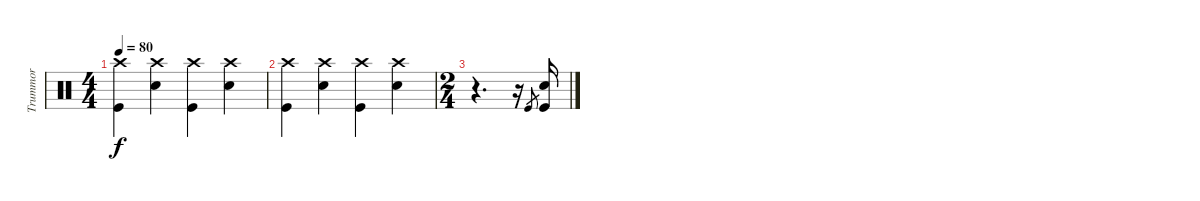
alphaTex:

\track ("Trummor" "Trummor") {instrument percussion}
\staff {score}
\articulation defaults
\ts (4 4)
\tempo 80
\clef neutral
\ks c
("Crash high (hit)" "Kick (hit)").4{dy f} ("Crash high (hit)" "Electric Snare (hit)").4 ("Crash high (hit)" "Kick (hit)").4 ("Crash high (hit)" "Electric Snare (hit)").4 |
("Crash high (hit)" "Kick (hit)").4 ("Crash high (hit)" "Electric Snare (hit)").4 ("Crash high (hit)" "Kick (hit)").4 ("Crash high (hit)" "Electric Snare (hit)").4 |
\ts (2 4)
r.4{d} r.16 "Kick (hit)"{sl}.8{gr} ("Electric Snare (hit)" "Kick (hit)").16
